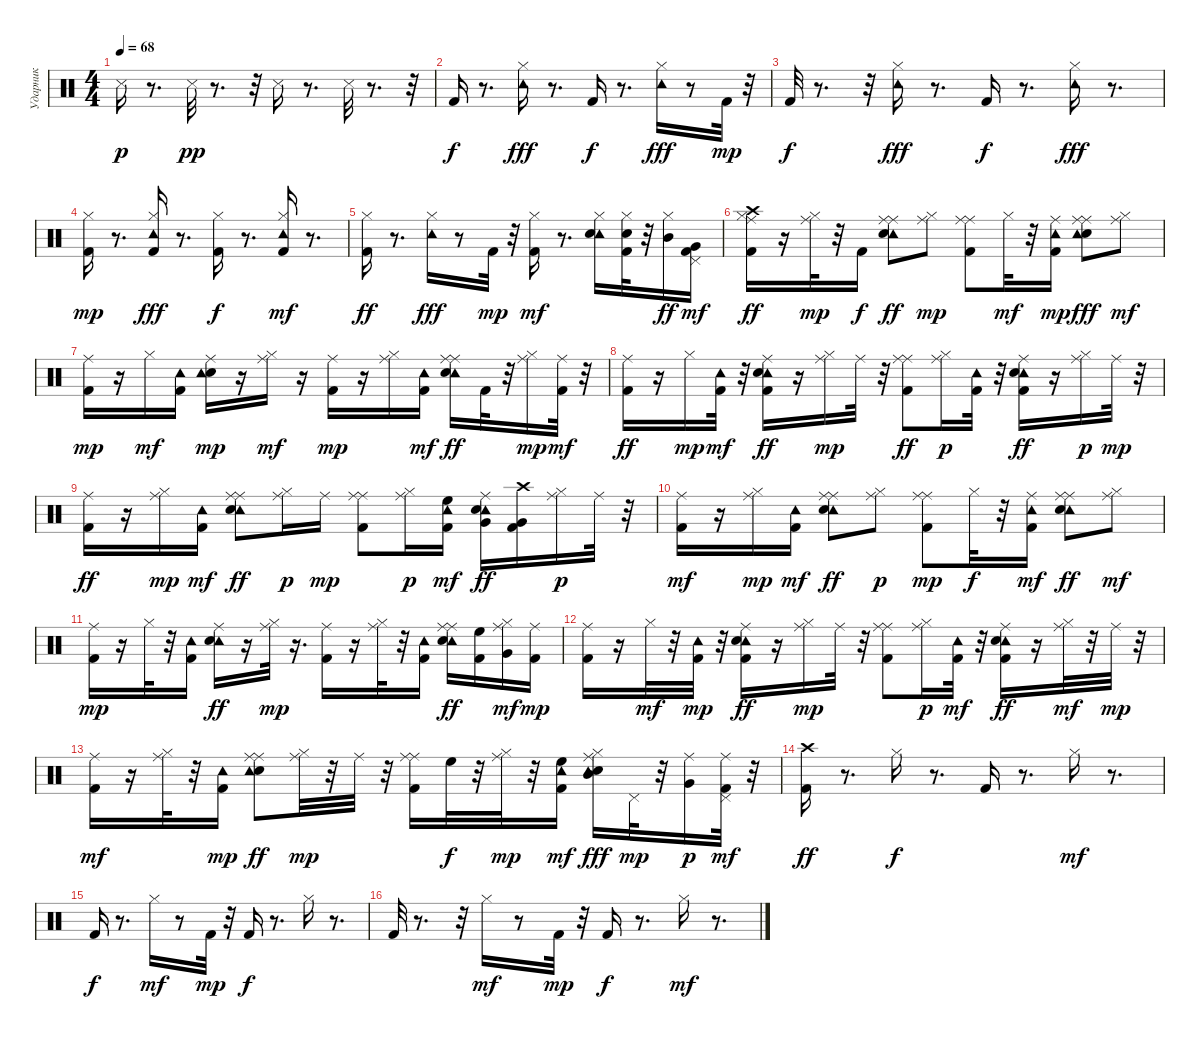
\track ("Ударник" "Ударник") {instrument percussion}
\staff {score}
\articulation defaults
\ts (4 4)
\tempo 68
\clef neutral
\ks c "Snare (side stick) 3".16{dy p}
r.8{d} "Snare (side stick) 3".32{dy pp} r.8{d} r.32 "Snare (side stick) 3".16 r.8{d} "Snare (side stick) 3".32 r.8{d} r.32 |
"Kick (hit) 2".16{dy f} r.8{d} ("Hi-Hat (closed)" "Tambourine (hit)").16{dy fff} r.8{d} "Kick (hit) 2".16{dy f} r.8{d} ("Tambourine (hit)" "Hi-Hat (closed)").16{dy fff} r.8 "Kick (hit) 2".32{dy mp} r.32 |
"Kick (hit) 2".32{dy f} r.8{d} r.32 ("Hi-Hat (closed)" "Tambourine (hit)").16{dy fff} r.8{d} "Kick (hit) 2".16{dy f} r.8{d} ("Hi-Hat (closed)" "Tambourine (hit)").16{dy fff} r.8{d} |
("Hi-Hat (closed)" "Kick (hit) 2").16{dy mp} r.8{d} ("Kick (hit) 2" "Hi-Hat (closed)" "Tambourine (hit)").16{dy fff} r.8{d} ("Kick (hit) 2" "Hi-Hat (closed)").16{dy f} r.8{d} ("Tambourine (hit)" "Kick (hit) 2" "Hi-Hat (closed)").16{dy mf} r.8{d} |
("Hi-Hat (closed)" "Kick (hit) 2").16{dy ff} r.8{d} ("Hi-Hat (closed)" "Tambourine (hit)").16{dy fff} r.8 "Kick (hit) 2".32{dy mp} r.32 ("Kick (hit) 2" "Hi-Hat (closed)").16{dy mf} r.8{d} ("Hi-Hat (closed)" "Tambourine (hit)" "Electric Snare (hit)").16 ("Kick (hit) 2" "Electric Snare (hit)" "Hi-Hat (closed)").32 r.32 ("Hi-Hat (closed)" "Mid Tom (hit)").16{dy ff} ("Kick (hit) 2" "Pedal Hi-Hat (hit)" "Very Low Tom (hit)").16{dy mf} |
("Hi-Hat (closed)" "Kick (hit) 2" "Ride (middle)" "Crash high (hit)").16{dy ff} r.16 ("Ride (middle)" "Hi-Hat (closed)").32{dy mp} r.32 "Kick (hit) 2".16{dy f} ("Ride (middle)" "Tambourine (hit)" "Ride (middle)" "Electric Snare (hit)").8{dy ff} ("Ride (middle)" "Hi-Hat (closed)").8{dy mp} ("Ride (middle)" "Kick (hit) 2" "Ride (middle)").8 "Hi-Hat (closed)".32{dy mf} r.32 ("Kick (hit) 2" "Ride (middle)" "Tambourine (hit)").16{dy mp} ("Ride (middle)" "Ride (middle)" "Electric Snare (hit)" "Tambourine (hit)").8{dy fff} ("Ride (middle)" "Hi-Hat (closed)").8{dy mf} |
("Kick (hit) 2" "Ride (middle)").16{dy mp} r.16 "Hi-Hat (closed)".16{dy mf} ("Kick (hit) 2" "Tambourine (hit)").16 ("Electric Snare (hit)" "Tambourine (hit)" "Ride (middle)").16{dy mp} r.16 ("Ride (middle)" "Hi-Hat (closed)").16{dy mf} r.16 ("Kick (hit) 2" "Ride (middle)").16{dy mp} r.16 ("Hi-Hat (closed)" "Ride (middle)").16 ("Kick (hit) 2" "Tambourine (hit)").16{dy mf} ("Ride (middle)" "Ride (middle)" "Tambourine (hit)" "Electric Snare (hit)").16{dy ff} "Kick (hit) 2".32 r.32 ("Hi-Hat (closed)" "Ride (middle)").16{dy mp} ("Ride (middle)" "Kick (hit) 2").32{dy mf} r.32 |
("Ride (middle)" "Kick (hit) 2").16{dy ff} r.16 "Hi-Hat (closed)".16{dy mp} ("Kick (hit) 2" "Tambourine (hit)").32{dy mf} r.32 ("Ride (middle)" "Kick (hit) 2" "Tambourine (hit)" "Electric Snare (hit)").16{dy ff} r.16 ("Hi-Hat (closed)" "Ride (middle)").16{dy mp} "Ride (middle)".32 r.32 ("Ride (middle)" "Ride (middle)" "Kick (hit) 2").8{dy ff} ("Ride (middle)" "Hi-Hat (closed)").16{dy p} ("Kick (hit) 2" "Tambourine (hit)").32 r.32 ("Kick (hit) 2" "Tambourine (hit)" "Ride (middle)" "Electric Snare (hit)").16{dy ff} r.16 ("Hi-Hat (closed)" "Ride (middle)").16{dy p} "Ride (middle)".32{dy mp} r.32 |
("Ride (middle)" "Kick (hit) 2").16{dy ff} r.16 ("Ride (middle)" "Hi-Hat (closed)").16{dy mp} ("Kick (hit) 2" "Tambourine (hit)").16{dy mf} ("Ride (middle)" "Ride (middle)" "Tambourine (hit)" "Electric Snare (hit)").8{dy ff} ("Hi-Hat (closed)" "Ride (middle)").16{dy p} "Ride (middle)".16{dy mp} ("Ride (middle)" "Kick (hit) 2" "Ride (middle)").8 ("Hi-Hat (closed)" "Ride (middle)").16{dy p} ("Kick (hit) 2" "Tambourine (hit)" "High Floor Tom (hit)").16{dy mf} ("Very Low Tom (hit)" "Ride (middle)" "Tambourine (hit)" "Electric Snare (hit)").16{dy ff} ("Kick (hit) 2" "Very Low Tom (hit)" "Crash high (hit)").16 ("Hi-Hat (closed)" "Ride (middle)").16{dy p} "Ride (middle)".32 r.32 |
("Ride (middle)" "Kick (hit) 2").16{dy mf} r.16 ("Hi-Hat (closed)" "Ride (middle)").16{dy mp} ("Kick (hit) 2" "Tambourine (hit)").16{dy mf} ("Ride (middle)" "Ride (middle)" "Tambourine (hit)" "Electric Snare (hit)").8{dy ff} ("Hi-Hat (closed)" "Ride (middle)").8{dy p} ("Kick (hit) 2" "Ride (middle)" "Ride (middle)").8{dy mp} "Hi-Hat (closed)".32{dy f} r.32 ("Ride (middle)" "Kick (hit) 2" "Tambourine (hit)").16{dy mf} ("Ride (middle)" "Ride (middle)" "Tambourine (hit)" "Electric Snare (hit)").8{dy ff} ("Ride (middle)" "Hi-Hat (closed)").8{dy mf} |
("Kick (hit) 2" "Ride (middle)").16{dy mp} r.16 "Hi-Hat (closed)".32 r.32 ("Kick (hit) 2" "Tambourine (hit)").16 ("Tambourine (hit)" "Ride (middle)" "Electric Snare (hit)").16{dy ff} r.16 ("Ride (middle)" "Hi-Hat (closed)").32{dy mp} r.16{d} ("Ride (middle)" "Kick (hit) 2").16 r.16 ("Ride (middle)" "Hi-Hat (closed)").32 r.32 ("Kick (hit) 2" "Tambourine (hit)").16 ("Ride (middle)" "Ride (middle)" "Tambourine (hit)" "Electric Snare (hit)").16{dy ff} ("Kick (hit) 2" "High Floor Tom (hit)").16 ("Ride (middle)" "Very Low Tom (hit)" "Hi-Hat (closed)").16{dy mf} ("Ride (middle)" "Kick (hit) 2").16{dy mp} |
("Kick (hit) 2" "Ride (middle)").16 r.16 "Hi-Hat (closed)".32{dy mf} r.32 ("Kick (hit) 2" "Tambourine (hit)").32{dy mp} r.32 ("Kick (hit) 2" "Ride (middle)" "Tambourine (hit)" "Electric Snare (hit)").16{dy ff} r.16 ("Ride (middle)" "Hi-Hat (closed)").16{dy mp} "Ride (middle)".32 r.32 ("Ride (middle)" "Kick (hit) 2" "Ride (middle)").8 ("Ride (middle)" "Hi-Hat (closed)").16{dy p} ("Kick (hit) 2" "Tambourine (hit)").32{dy mf} r.32 ("Kick (hit) 2" "Ride (middle)" "Tambourine (hit)" "Electric Snare (hit)").16{dy ff} r.16 ("Ride (middle)" "Hi-Hat (closed)").32{dy mf} r.32 "Ride (middle)".32{dy mp} r.32 |
("Kick (hit) 2" "Ride (middle)").16{dy mf} r.16 ("Ride (middle)" "Hi-Hat (closed)").32 r.32 ("Kick (hit) 2" "Tambourine (hit)").16{dy mp} ("Ride (middle)" "Ride (middle)" "Electric Snare (hit)" "Tambourine (hit)").8{dy ff} ("Ride (middle)" "Hi-Hat (closed)").32{dy mp} r.32 "Ride (middle)".32 r.32 ("Ride (middle)" "Kick (hit) 2" "Ride (middle)").16 "High Floor Tom (hit)".32{dy f} r.32 ("Ride (middle)" "Hi-Hat (closed)").32{dy mp} r.32 ("Kick (hit) 2" "Tambourine (hit)" "High Floor Tom (hit)").16{dy mf} ("Mid Tom (hit)" "Ride (middle)" "Hi-Hat (closed)" "Electric Snare (hit)" "Tambourine (hit)").16{dy fff} "Pedal Hi-Hat (hit)".32{dy mp} r.32 ("Very Low Tom (hit)" "Ride (middle)").16{dy p} ("Ride (middle)" "Kick (hit) 2" "Pedal Hi-Hat (hit)").32{dy mf} r.32 |
("Kick (hit) 2" "Crash high (hit)").16{dy ff} r.8{d} "Hi-Hat (closed)".16{dy f} r.8{d} "Kick (hit) 2".16 r.8{d} "Hi-Hat (closed)".16{dy mf} r.8{d} |
"Kick (hit) 2".16{dy f} r.8{d} "Hi-Hat (closed)".16{dy mf} r.8 "Kick (hit) 2".32{dy mp} r.32 "Kick (hit) 2".16{dy f} r.8{d} "Hi-Hat (closed)".16 r.8{d} |
"Kick (hit) 2".32 r.8{d} r.32 "Hi-Hat (closed)".16{dy mf} r.8 "Kick (hit) 2".32{dy mp} r.32 "Kick (hit) 2".16{dy f} r.8{d} "Hi-Hat (closed)".16{dy mf} r.8{d}
